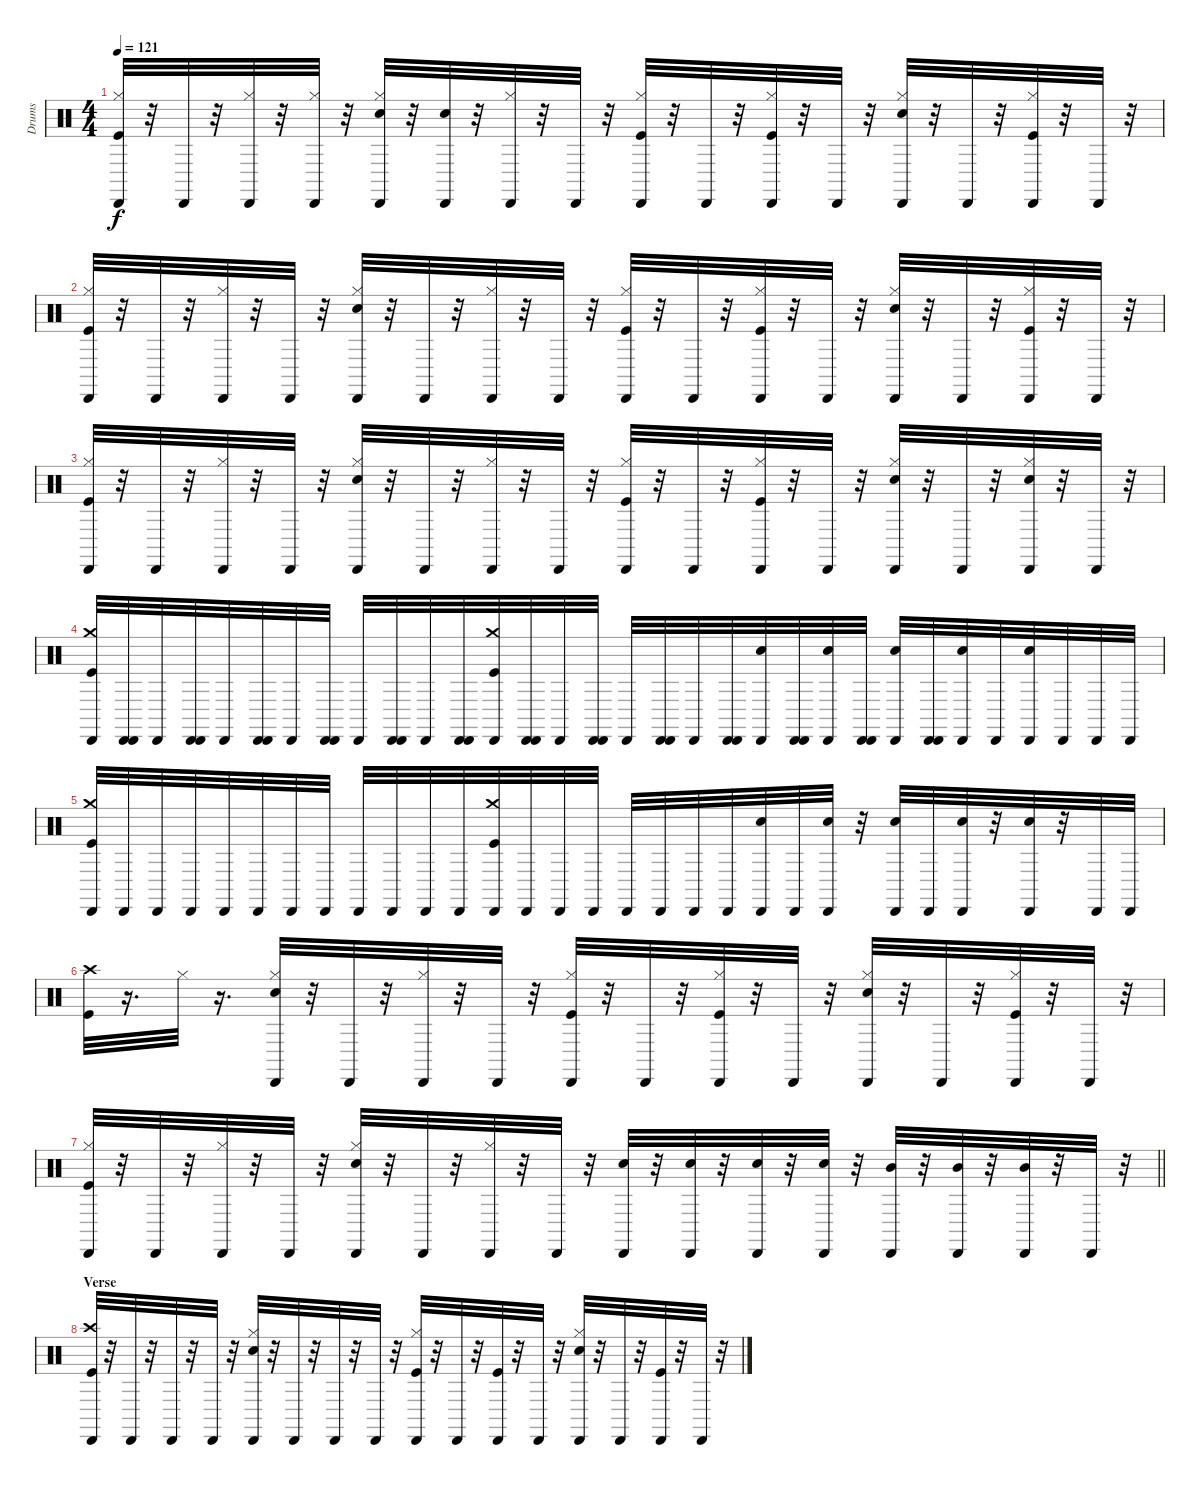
\track ("Drums" "Drums") {instrument percussion}
\staff {score}
\articulation defaults
\ts (4 4)
\tempo 121
\clef neutral
\ks c
("Hi-Hat (closed)" "Kick (hit)" "Cabasa (hit)").32{dy f} r.32 "Cabasa (hit)".32 r.32 ("Hi-Hat (closed)" "Cabasa (hit)").32 r.32 ("Hi-Hat (closed)" "Cabasa (hit)").32 r.32 ("Hi-Hat (closed)" "Snare (hit) 2" "Cabasa (hit)").32 r.32 ("Snare (hit) 2" "Cabasa (hit)").32 r.32 ("Hi-Hat (closed)" "Cabasa (hit)").32 r.32 "Cabasa (hit)".32 r.32 ("Hi-Hat (closed)" "Cabasa (hit)" "Kick (hit)").32 r.32 "Cabasa (hit)".32 r.32 ("Hi-Hat (closed)" "Cabasa (hit)" "Kick (hit)").32 r.32 "Cabasa (hit)".32 r.32 ("Hi-Hat (closed)" "Cabasa (hit)" "Snare (hit) 2").32 r.32 "Cabasa (hit)".32 r.32 ("Hi-Hat (closed)" "Kick (hit)" "Cabasa (hit)").32 r.32 "Cabasa (hit)".32 r.32 |
("Hi-Hat (closed)" "Kick (hit)" "Cabasa (hit)").32 r.32 "Cabasa (hit)".32 r.32 ("Hi-Hat (closed)" "Cabasa (hit)").32 r.32 "Cabasa (hit)".32 r.32 ("Hi-Hat (closed)" "Cabasa (hit)" "Snare (hit) 2").32 r.32 "Cabasa (hit)".32 r.32 ("Hi-Hat (closed)" "Cabasa (hit)").32 r.32 "Cabasa (hit)".32 r.32 ("Hi-Hat (closed)" "Kick (hit)" "Cabasa (hit)").32 r.32 "Cabasa (hit)".32 r.32 ("Hi-Hat (closed)" "Kick (hit)" "Cabasa (hit)").32 r.32 "Cabasa (hit)".32 r.32 ("Hi-Hat (closed)" "Snare (hit) 2" "Cabasa (hit)").32 r.32 "Cabasa (hit)".32 r.32 ("Hi-Hat (closed)" "Cabasa (hit)" "Kick (hit)").32 r.32 "Cabasa (hit)".32 r.32 |
("Hi-Hat (closed)" "Kick (hit)" "Cabasa (hit)").32 r.32 "Cabasa (hit)".32 r.32 ("Hi-Hat (closed)" "Cabasa (hit)").32 r.32 "Cabasa (hit)".32 r.32 ("Hi-Hat (closed)" "Snare (hit) 2" "Cabasa (hit)").32 r.32 "Cabasa (hit)".32 r.32 ("Hi-Hat (closed)" "Cabasa (hit)").32 r.32 "Cabasa (hit)".32 r.32 ("Hi-Hat (closed)" "Cabasa (hit)" "Kick (hit)").32 r.32 "Cabasa (hit)".32 r.32 ("Hi-Hat (closed)" "Kick (hit)" "Cabasa (hit)").32 r.32 "Cabasa (hit)".32 r.32 ("Hi-Hat (closed)" "Snare (hit) 2" "Cabasa (hit)").32 r.32 "Cabasa (hit)".32 r.32 ("Hi-Hat (closed)" "Cabasa (hit)" "Snare (hit) 2").32 r.32 "Cabasa (hit)".32 r.32 |
("Kick (hit)" "Crash medium (hit)" "Cabasa (hit)").32 ("Cabasa (hit)" "Cabasa (hit)").32 "Cabasa (hit)".32 ("Cabasa (hit)" "Cabasa (hit)").32 "Cabasa (hit)".32 ("Cabasa (hit)" "Cabasa (hit)").32 "Cabasa (hit)".32 ("Cabasa (hit)" "Cabasa (hit)").32 "Cabasa (hit)".32 ("Cabasa (hit)" "Cabasa (hit)").32 "Cabasa (hit)".32 ("Cabasa (hit)" "Cabasa (hit)").32 ("Kick (hit)" "Crash medium (hit)" "Cabasa (hit)").32 ("Cabasa (hit)" "Cabasa (hit)").32 "Cabasa (hit)".32 ("Cabasa (hit)" "Cabasa (hit)").32 "Cabasa (hit)".32 ("Cabasa (hit)" "Cabasa (hit)").32 "Cabasa (hit)".32 ("Cabasa (hit)" "Cabasa (hit)").32 ("Cabasa (hit)" "Snare (hit) 2").32 ("Cabasa (hit)" "Cabasa (hit)").32 ("Cabasa (hit)" "Snare (hit) 2").32 ("Cabasa (hit)" "Cabasa (hit)").32 ("Snare (hit) 2" "Cabasa (hit)").32 ("Cabasa (hit)" "Cabasa (hit)").32 ("Cabasa (hit)" "Snare (hit) 2").32 "Cabasa (hit)".32 ("Snare (hit) 2" "Cabasa (hit)").32 "Cabasa (hit)".32 "Cabasa (hit)".32 "Cabasa (hit)".32 |
("Kick (hit)" "Crash medium (hit)" "Cabasa (hit)").32 "Cabasa (hit)".32 "Cabasa (hit)".32 "Cabasa (hit)".32 "Cabasa (hit)".32 "Cabasa (hit)".32 "Cabasa (hit)".32 "Cabasa (hit)".32 "Cabasa (hit)".32 "Cabasa (hit)".32 "Cabasa (hit)".32 "Cabasa (hit)".32 ("Cabasa (hit)" "Crash medium (hit)" "Kick (hit)").32 "Cabasa (hit)".32 "Cabasa (hit)".32 "Cabasa (hit)".32 "Cabasa (hit)".32 "Cabasa (hit)".32 "Cabasa (hit)".32 "Cabasa (hit)".32 ("Cabasa (hit)" "Snare (hit) 2").32 "Cabasa (hit)".32 ("Snare (hit) 2" "Cabasa (hit)").32 r.32 ("Cabasa (hit)" "Snare (hit) 2").32 "Cabasa (hit)".32 ("Snare (hit) 2" "Cabasa (hit)").32 r.32 ("Cabasa (hit)" "Snare (hit) 2").32 r.32 "Cabasa (hit)".32 "Cabasa (hit)".32 |
("Kick (hit)" "Crash high (hit)").32 r.16{d} "Hi-Hat (closed)".32 r.16{d} ("Hi-Hat (closed)" "Cabasa (hit)" "Snare (hit) 2").32 r.32 "Cabasa (hit)".32 r.32 ("Hi-Hat (closed)" "Cabasa (hit)").32 r.32 "Cabasa (hit)".32 r.32 ("Hi-Hat (closed)" "Cabasa (hit)" "Kick (hit)").32 r.32 "Cabasa (hit)".32 r.32 ("Hi-Hat (closed)" "Cabasa (hit)" "Kick (hit)").32 r.32 "Cabasa (hit)".32 r.32 ("Hi-Hat (closed)" "Snare (hit) 2" "Cabasa (hit)").32 r.32 "Cabasa (hit)".32 r.32 ("Hi-Hat (closed)" "Cabasa (hit)" "Kick (hit)").32 r.32 "Cabasa (hit)".32 r.32 |
\barLineRight lightlight
("Hi-Hat (closed)" "Kick (hit)" "Cabasa (hit)").32 r.32 "Cabasa (hit)".32 r.32 ("Hi-Hat (closed)" "Cabasa (hit)").32 r.32 "Cabasa (hit)".32 r.32 ("Hi-Hat (closed)" "Cabasa (hit)" "Snare (hit) 2").32 r.32 "Cabasa (hit)".32 r.32 ("Hi-Hat (closed)" "Cabasa (hit)").32 r.32 "Cabasa (hit)".32 r.32 ("Snare (hit) 2" "Cabasa (hit)").32 r.32 ("Cabasa (hit)" "Snare (hit) 2").32 r.32 ("Snare (hit) 2" "Cabasa (hit)").32 r.32 ("Cabasa (hit)" "Snare (hit) 2").32 r.32 ("Cabasa (hit)" "Mid Tom (hit)").32 r.32 ("Cabasa (hit)" "Mid Tom (hit)").32 r.32 ("Cabasa (hit)" "Mid Tom (hit)").32 r.32 "Cabasa (hit)".32 r.32 |
\section ("" "Verse")
("Kick (hit)" "Cabasa (hit)" "Crash high (hit)").32 r.32 "Cabasa (hit)".32 r.32 "Cabasa (hit)".32 r.32 "Cabasa (hit)".32 r.32 ("Hi-Hat (closed)" "Snare (hit) 2" "Cabasa (hit)").32 r.32 "Cabasa (hit)".32 r.32 "Cabasa (hit)".32 r.32 "Cabasa (hit)".32 r.32 ("Hi-Hat (closed)" "Cabasa (hit)" "Kick (hit)").32 r.32 "Cabasa (hit)".32 r.32 ("Cabasa (hit)" "Kick (hit)").32 r.32 "Cabasa (hit)".32 r.32 ("Hi-Hat (closed)" "Cabasa (hit)" "Snare (hit) 2").32 r.32 "Cabasa (hit)".32 r.32 ("Cabasa (hit)" "Kick (hit)").32 r.32 "Cabasa (hit)".32 r.32
